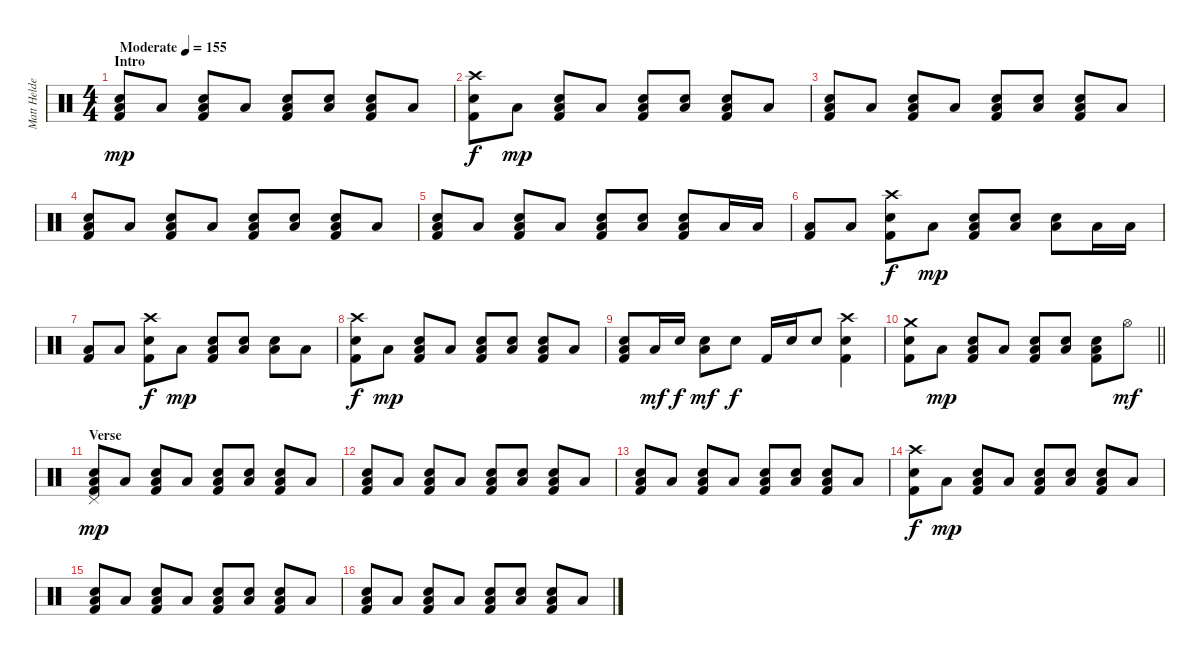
\track ("Matt Helders - Drums MIDI" "Matt Helde") {instrument percussion}
\staff {score}
\articulation defaults
\ts (4 4)
\section ("" "Intro")
\tempo (155 "Moderate")
\clef neutral
\ks c
("Low Floor Tom (hit)" "Snare (hit) 2" "Kick (hit) 2").8{dy mp} "Low Floor Tom (hit)".8 ("Low Floor Tom (hit)" "Snare (hit) 2" "Kick (hit) 2").8 "Low Floor Tom (hit)".8 ("Low Floor Tom (hit)" "Snare (hit) 2" "Kick (hit) 2").8 ("Low Floor Tom (hit)" "Snare (hit) 2").8 ("Low Floor Tom (hit)" "Snare (hit) 2" "Kick (hit) 2").8 "Low Floor Tom (hit)".8 |
("Crash high (hit)" "Snare (hit) 2" "Kick (hit) 2").8{dy f} "Low Floor Tom (hit)".8{dy mp} ("Low Floor Tom (hit)" "Snare (hit) 2" "Kick (hit) 2").8 "Low Floor Tom (hit)".8 ("Low Floor Tom (hit)" "Snare (hit) 2" "Kick (hit) 2").8 ("Low Floor Tom (hit)" "Snare (hit) 2").8 ("Low Floor Tom (hit)" "Snare (hit) 2" "Kick (hit) 2").8 "Low Floor Tom (hit)".8 |
("Low Floor Tom (hit)" "Snare (hit) 2" "Kick (hit) 2").8 "Low Floor Tom (hit)".8 ("Low Floor Tom (hit)" "Snare (hit) 2" "Kick (hit) 2").8 "Low Floor Tom (hit)".8 ("Low Floor Tom (hit)" "Snare (hit) 2" "Kick (hit) 2").8 ("Low Floor Tom (hit)" "Snare (hit) 2").8 ("Low Floor Tom (hit)" "Snare (hit) 2" "Kick (hit) 2").8 "Low Floor Tom (hit)".8 |
("Low Floor Tom (hit)" "Snare (hit) 2" "Kick (hit) 2").8 "Low Floor Tom (hit)".8 ("Low Floor Tom (hit)" "Snare (hit) 2" "Kick (hit) 2").8 "Low Floor Tom (hit)".8 ("Low Floor Tom (hit)" "Snare (hit) 2" "Kick (hit) 2").8 ("Low Floor Tom (hit)" "Snare (hit) 2").8 ("Low Floor Tom (hit)" "Snare (hit) 2" "Kick (hit) 2").8 "Low Floor Tom (hit)".8 |
("Low Floor Tom (hit)" "Snare (hit) 2" "Kick (hit) 2").8 "Low Floor Tom (hit)".8 ("Low Floor Tom (hit)" "Snare (hit) 2" "Kick (hit) 2").8 "Low Floor Tom (hit)".8 ("Low Floor Tom (hit)" "Snare (hit) 2" "Kick (hit) 2").8 ("Low Floor Tom (hit)" "Snare (hit) 2").8 ("Low Floor Tom (hit)" "Snare (hit) 2" "Kick (hit) 2").8 "Low Floor Tom (hit)".16 "Low Floor Tom (hit)".16 |
("Low Floor Tom (hit)" "Kick (hit) 2").8 "Low Floor Tom (hit)".8 ("Crash high (hit)" "Snare (hit) 2" "Kick (hit) 2").8{dy f} "Low Floor Tom (hit)".8{dy mp} ("Low Floor Tom (hit)" "Snare (hit) 2" "Kick (hit) 2").8 ("Low Floor Tom (hit)" "Snare (hit) 2").8 ("Low Floor Tom (hit)" "Snare (hit) 2").8 "Low Floor Tom (hit)".16 "Low Floor Tom (hit)".16 |
("Low Floor Tom (hit)" "Kick (hit) 2").8 "Low Floor Tom (hit)".8 ("Crash high (hit)" "Snare (hit) 2" "Kick (hit) 2").8{dy f} "Low Floor Tom (hit)".8{dy mp} ("Low Floor Tom (hit)" "Snare (hit) 2" "Kick (hit) 2").8 ("Low Floor Tom (hit)" "Snare (hit) 2").8 ("Low Floor Tom (hit)" "Snare (hit) 2").8 "Low Floor Tom (hit)".8 |
("Crash high (hit)" "Snare (hit) 2" "Kick (hit) 2").8{dy f} "Low Floor Tom (hit)".8{dy mp} ("Low Floor Tom (hit)" "Snare (hit) 2" "Kick (hit) 2").8 "Low Floor Tom (hit)".8 ("Low Floor Tom (hit)" "Snare (hit) 2" "Kick (hit) 2").8 ("Low Floor Tom (hit)" "Snare (hit) 2").8 ("Low Floor Tom (hit)" "Snare (hit) 2" "Kick (hit) 2").8 "Low Floor Tom (hit)".8 |
("Low Floor Tom (hit)" "Snare (hit) 2" "Kick (hit) 2").8 "Low Floor Tom (hit)".16{dy mf} "Snare (hit) 2".16{dy f} ("Low Floor Tom (hit)" "Snare (hit) 2").8{dy mf} "Snare (hit) 2".8{dy f} "Kick (hit) 2".16 "Snare (hit) 2".16 "Snare (hit) 2".8 ("Crash high (hit)" "Snare (hit) 2" "Kick (hit) 2").4 |
\barLineRight lightlight
("Crash medium (hit)" "Snare (hit) 2" "Kick (hit) 2").8 "Low Floor Tom (hit)".8{dy mp} ("Low Floor Tom (hit)" "Snare (hit) 2" "Kick (hit) 2").8 "Low Floor Tom (hit)".8 ("Low Floor Tom (hit)" "Snare (hit) 2" "Kick (hit) 2").8 ("Low Floor Tom (hit)" "Snare (hit) 2").8 ("Low Floor Tom (hit)" "Snare (hit) 2" "Kick (hit) 2").8 "Hi-Hat (open)".8{dy mf} |
\section ("" "Verse")
("Pedal Hi-Hat (hit)" "Low Floor Tom (hit)" "Snare (hit) 2" "Kick (hit) 2").8{dy mp} "Low Floor Tom (hit)".8 ("Low Floor Tom (hit)" "Snare (hit) 2" "Kick (hit) 2").8 "Low Floor Tom (hit)".8 ("Low Floor Tom (hit)" "Snare (hit) 2" "Kick (hit) 2").8 ("Low Floor Tom (hit)" "Snare (hit) 2").8 ("Low Floor Tom (hit)" "Snare (hit) 2" "Kick (hit) 2").8 "Low Floor Tom (hit)".8 |
("Low Floor Tom (hit)" "Snare (hit) 2" "Kick (hit) 2").8 "Low Floor Tom (hit)".8 ("Low Floor Tom (hit)" "Snare (hit) 2" "Kick (hit) 2").8 "Low Floor Tom (hit)".8 ("Low Floor Tom (hit)" "Snare (hit) 2" "Kick (hit) 2").8 ("Low Floor Tom (hit)" "Snare (hit) 2").8 ("Low Floor Tom (hit)" "Snare (hit) 2" "Kick (hit) 2").8 "Low Floor Tom (hit)".8 |
("Low Floor Tom (hit)" "Snare (hit) 2" "Kick (hit) 2").8 "Low Floor Tom (hit)".8 ("Low Floor Tom (hit)" "Snare (hit) 2" "Kick (hit) 2").8 "Low Floor Tom (hit)".8 ("Low Floor Tom (hit)" "Snare (hit) 2" "Kick (hit) 2").8 ("Low Floor Tom (hit)" "Snare (hit) 2").8 ("Low Floor Tom (hit)" "Snare (hit) 2" "Kick (hit) 2").8 "Low Floor Tom (hit)".8 |
("Crash high (hit)" "Snare (hit) 2" "Kick (hit) 2").8{dy f} "Low Floor Tom (hit)".8{dy mp} ("Low Floor Tom (hit)" "Snare (hit) 2" "Kick (hit) 2").8 "Low Floor Tom (hit)".8 ("Low Floor Tom (hit)" "Snare (hit) 2" "Kick (hit) 2").8 ("Low Floor Tom (hit)" "Snare (hit) 2").8 ("Low Floor Tom (hit)" "Snare (hit) 2" "Kick (hit) 2").8 "Low Floor Tom (hit)".8 |
("Low Floor Tom (hit)" "Snare (hit) 2" "Kick (hit) 2").8 "Low Floor Tom (hit)".8 ("Low Floor Tom (hit)" "Snare (hit) 2" "Kick (hit) 2").8 "Low Floor Tom (hit)".8 ("Low Floor Tom (hit)" "Snare (hit) 2" "Kick (hit) 2").8 ("Low Floor Tom (hit)" "Snare (hit) 2").8 ("Low Floor Tom (hit)" "Snare (hit) 2" "Kick (hit) 2").8 "Low Floor Tom (hit)".8 |
("Low Floor Tom (hit)" "Snare (hit) 2" "Kick (hit) 2").8 "Low Floor Tom (hit)".8 ("Low Floor Tom (hit)" "Snare (hit) 2" "Kick (hit) 2").8 "Low Floor Tom (hit)".8 ("Low Floor Tom (hit)" "Snare (hit) 2" "Kick (hit) 2").8 ("Low Floor Tom (hit)" "Snare (hit) 2").8 ("Low Floor Tom (hit)" "Snare (hit) 2" "Kick (hit) 2").8 "Low Floor Tom (hit)".8
